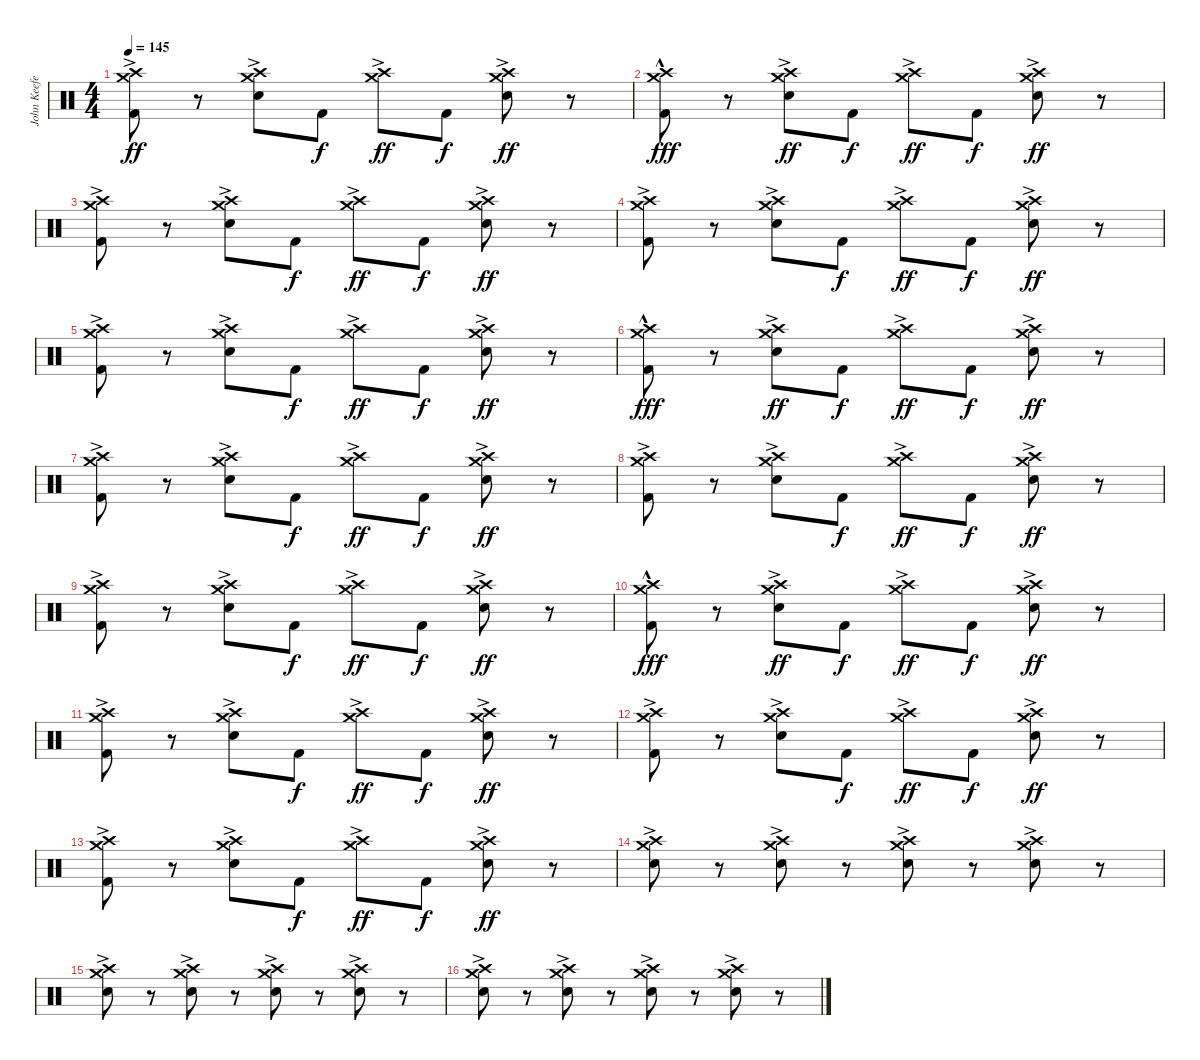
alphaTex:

\track ("John Keefe (Percussion)" "John Keefe") {instrument percussion}
\staff {score}
\articulation defaults
\ts (4 4)
\tempo 145
\clef neutral
\ks c
("Crash high (hit)"{ac} "Crash medium (hit)"{ac} "Kick (hit) 2").8{dy ff} r.8 ("Crash high (hit)"{ac} "Crash medium (hit)"{ac} "Electric Snare (hit)").8 "Kick (hit) 2".8{dy f} ("Crash high (hit)"{ac} "Crash medium (hit)"{ac}).8{dy ff} "Kick (hit) 2".8{dy f} ("Crash high (hit)"{ac} "Crash medium (hit)"{ac} "Electric Snare (hit)").8{dy ff} r.8 |
("Crash high (hit)"{hac} "Crash medium (hit)"{hac} "Kick (hit) 2"{hac}).8{dy fff} r.8 ("Crash high (hit)"{ac} "Crash medium (hit)"{ac} "Electric Snare (hit)").8{dy ff} "Kick (hit) 2".8{dy f} ("Crash high (hit)"{ac} "Crash medium (hit)"{ac}).8{dy ff} "Kick (hit) 2".8{dy f} ("Crash high (hit)"{ac} "Crash medium (hit)"{ac} "Electric Snare (hit)").8{dy ff} r.8 |
("Crash high (hit)"{ac} "Crash medium (hit)"{ac} "Kick (hit) 2").8 r.8 ("Crash high (hit)"{ac} "Crash medium (hit)"{ac} "Electric Snare (hit)").8 "Kick (hit) 2".8{dy f} ("Crash high (hit)"{ac} "Crash medium (hit)"{ac}).8{dy ff} "Kick (hit) 2".8{dy f} ("Crash high (hit)"{ac} "Crash medium (hit)"{ac} "Electric Snare (hit)").8{dy ff} r.8 |
("Crash high (hit)"{ac} "Crash medium (hit)"{ac} "Kick (hit) 2").8 r.8 ("Crash high (hit)"{ac} "Crash medium (hit)"{ac} "Electric Snare (hit)").8 "Kick (hit) 2".8{dy f} ("Crash high (hit)"{ac} "Crash medium (hit)"{ac}).8{dy ff} "Kick (hit) 2".8{dy f} ("Crash high (hit)"{ac} "Crash medium (hit)"{ac} "Electric Snare (hit)").8{dy ff} r.8 |
("Crash high (hit)"{ac} "Crash medium (hit)"{ac} "Kick (hit) 2").8 r.8 ("Crash high (hit)"{ac} "Crash medium (hit)"{ac} "Electric Snare (hit)").8 "Kick (hit) 2".8{dy f} ("Crash high (hit)"{ac} "Crash medium (hit)"{ac}).8{dy ff} "Kick (hit) 2".8{dy f} ("Crash high (hit)"{ac} "Crash medium (hit)"{ac} "Electric Snare (hit)").8{dy ff} r.8 |
("Crash high (hit)"{hac} "Crash medium (hit)"{hac} "Kick (hit) 2"{hac}).8{dy fff} r.8 ("Crash high (hit)"{ac} "Crash medium (hit)"{ac} "Electric Snare (hit)").8{dy ff} "Kick (hit) 2".8{dy f} ("Crash high (hit)"{ac} "Crash medium (hit)"{ac}).8{dy ff} "Kick (hit) 2".8{dy f} ("Crash high (hit)"{ac} "Crash medium (hit)"{ac} "Electric Snare (hit)").8{dy ff} r.8 |
("Crash high (hit)"{ac} "Crash medium (hit)"{ac} "Kick (hit) 2").8 r.8 ("Crash high (hit)"{ac} "Crash medium (hit)"{ac} "Electric Snare (hit)").8 "Kick (hit) 2".8{dy f} ("Crash high (hit)"{ac} "Crash medium (hit)"{ac}).8{dy ff} "Kick (hit) 2".8{dy f} ("Crash high (hit)"{ac} "Crash medium (hit)"{ac} "Electric Snare (hit)").8{dy ff} r.8 |
("Crash high (hit)"{ac} "Crash medium (hit)"{ac} "Kick (hit) 2").8 r.8 ("Crash high (hit)"{ac} "Crash medium (hit)"{ac} "Electric Snare (hit)").8 "Kick (hit) 2".8{dy f} ("Crash high (hit)"{ac} "Crash medium (hit)"{ac}).8{dy ff} "Kick (hit) 2".8{dy f} ("Crash high (hit)"{ac} "Crash medium (hit)"{ac} "Electric Snare (hit)").8{dy ff} r.8 |
("Crash high (hit)"{ac} "Crash medium (hit)"{ac} "Kick (hit) 2").8 r.8 ("Crash high (hit)"{ac} "Crash medium (hit)"{ac} "Electric Snare (hit)").8 "Kick (hit) 2".8{dy f} ("Crash high (hit)"{ac} "Crash medium (hit)"{ac}).8{dy ff} "Kick (hit) 2".8{dy f} ("Crash high (hit)"{ac} "Crash medium (hit)"{ac} "Electric Snare (hit)").8{dy ff} r.8 |
("Crash high (hit)"{hac} "Crash medium (hit)"{hac} "Kick (hit) 2"{hac}).8{dy fff} r.8 ("Crash high (hit)"{ac} "Crash medium (hit)"{ac} "Electric Snare (hit)").8{dy ff} "Kick (hit) 2".8{dy f} ("Crash high (hit)"{ac} "Crash medium (hit)"{ac}).8{dy ff} "Kick (hit) 2".8{dy f} ("Crash high (hit)"{ac} "Crash medium (hit)"{ac} "Electric Snare (hit)").8{dy ff} r.8 |
("Crash high (hit)"{ac} "Crash medium (hit)"{ac} "Kick (hit) 2").8 r.8 ("Crash high (hit)"{ac} "Crash medium (hit)"{ac} "Electric Snare (hit)").8 "Kick (hit) 2".8{dy f} ("Crash high (hit)"{ac} "Crash medium (hit)"{ac}).8{dy ff} "Kick (hit) 2".8{dy f} ("Crash high (hit)"{ac} "Crash medium (hit)"{ac} "Electric Snare (hit)").8{dy ff} r.8 |
("Crash high (hit)"{ac} "Crash medium (hit)"{ac} "Kick (hit) 2").8 r.8 ("Crash high (hit)"{ac} "Crash medium (hit)"{ac} "Electric Snare (hit)").8 "Kick (hit) 2".8{dy f} ("Crash high (hit)"{ac} "Crash medium (hit)"{ac}).8{dy ff} "Kick (hit) 2".8{dy f} ("Crash high (hit)"{ac} "Crash medium (hit)"{ac} "Electric Snare (hit)").8{dy ff} r.8 |
("Crash high (hit)"{ac} "Crash medium (hit)"{ac} "Kick (hit) 2").8 r.8 ("Crash high (hit)"{ac} "Crash medium (hit)"{ac} "Electric Snare (hit)").8 "Kick (hit) 2".8{dy f} ("Crash high (hit)"{ac} "Crash medium (hit)"{ac}).8{dy ff} "Kick (hit) 2".8{dy f} ("Crash high (hit)"{ac} "Crash medium (hit)"{ac} "Electric Snare (hit)").8{dy ff} r.8 |
("Crash high (hit)"{ac} "Crash medium (hit)"{ac} "Electric Snare (hit)").8 r.8 ("Crash high (hit)"{ac} "Crash medium (hit)"{ac} "Electric Snare (hit)").8 r.8 ("Crash high (hit)"{ac} "Crash medium (hit)"{ac} "Electric Snare (hit)").8 r.8 ("Crash high (hit)"{ac} "Crash medium (hit)"{ac} "Electric Snare (hit)").8 r.8 |
("Crash high (hit)"{ac} "Crash medium (hit)"{ac} "Electric Snare (hit)").8 r.8 ("Crash high (hit)"{ac} "Crash medium (hit)"{ac} "Electric Snare (hit)").8 r.8 ("Crash high (hit)"{ac} "Crash medium (hit)"{ac} "Electric Snare (hit)").8 r.8 ("Crash high (hit)"{ac} "Crash medium (hit)"{ac} "Electric Snare (hit)").8 r.8 |
("Crash high (hit)"{ac} "Crash medium (hit)"{ac} "Electric Snare (hit)").8 r.8 ("Crash high (hit)"{ac} "Crash medium (hit)"{ac} "Electric Snare (hit)").8 r.8 ("Crash high (hit)"{ac} "Crash medium (hit)"{ac} "Electric Snare (hit)").8 r.8 ("Crash high (hit)"{ac} "Crash medium (hit)"{ac} "Electric Snare (hit)").8 r.8
